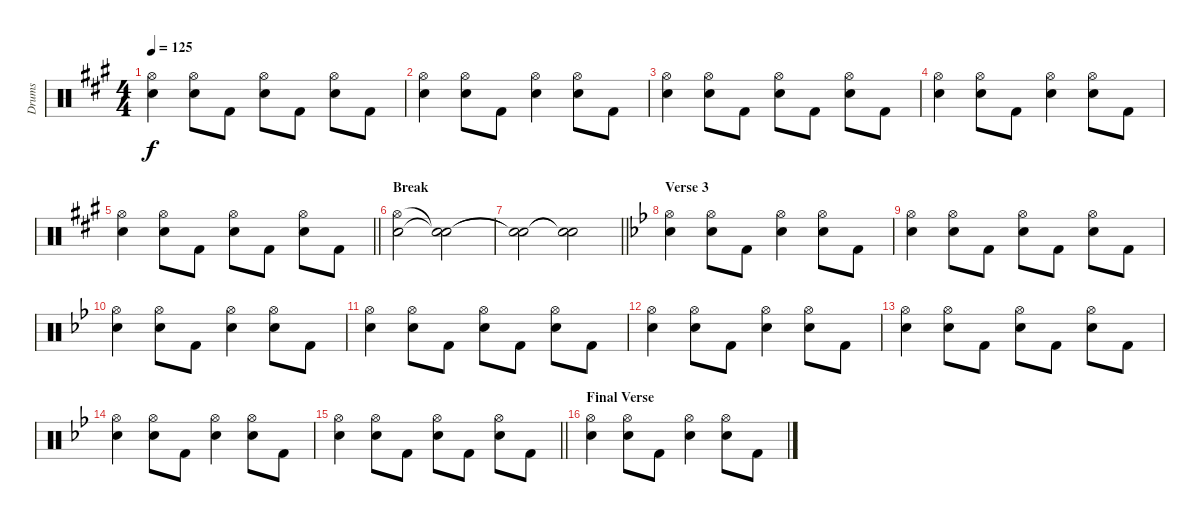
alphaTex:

\track ("Drums" "Drums") {instrument percussion}
\staff {score}
\articulation defaults
\ts (4 4)
\tempo 125
\clef neutral
\ks a
("Hi-Hat (open)" "Electric Snare (hit)").4{dy f} ("Hi-Hat (open)" "Electric Snare (hit)").8 "Kick (hit) 2".8 ("Hi-Hat (open)" "Electric Snare (hit)").8 "Kick (hit) 2".8 ("Hi-Hat (open)" "Electric Snare (hit)").8 "Kick (hit) 2".8 |
("Hi-Hat (open)" "Electric Snare (hit)").4 ("Hi-Hat (open)" "Electric Snare (hit)").8 "Kick (hit) 2".8 ("Hi-Hat (open)" "Electric Snare (hit)").4 ("Hi-Hat (open)" "Electric Snare (hit)").8 "Kick (hit) 2".8 |
("Hi-Hat (open)" "Electric Snare (hit)").4 ("Hi-Hat (open)" "Electric Snare (hit)").8 "Kick (hit) 2".8 ("Hi-Hat (open)" "Electric Snare (hit)").8 "Kick (hit) 2".8 ("Hi-Hat (open)" "Electric Snare (hit)").8 "Kick (hit) 2".8 |
("Hi-Hat (open)" "Electric Snare (hit)").4 ("Hi-Hat (open)" "Electric Snare (hit)").8 "Kick (hit) 2".8 ("Hi-Hat (open)" "Electric Snare (hit)").4 ("Hi-Hat (open)" "Electric Snare (hit)").8 "Kick (hit) 2".8 |
\barLineRight lightlight
("Hi-Hat (open)" "Electric Snare (hit)").4 ("Hi-Hat (open)" "Electric Snare (hit)").8 "Kick (hit) 2".8 ("Hi-Hat (open)" "Electric Snare (hit)").8 "Kick (hit) 2".8 ("Hi-Hat (open)" "Electric Snare (hit)").8 "Kick (hit) 2".8 |
\section ("" "Break")
("Electric Snare (hit)" "Hi-Hat (open)").2 ("Snare (hit)"{t} "Snare (hit)"{t}).2 |
\barLineRight lightlight
("Snare (hit)"{t} "Snare (hit)"{t}).2 ("Snare (hit)"{t} "Snare (hit)"{t}).2 |
\section ("" "Verse 3")
\ks bb
("Hi-Hat (open)" "Electric Snare (hit)").4 ("Hi-Hat (open)" "Electric Snare (hit)").8 "Kick (hit) 2".8 ("Hi-Hat (open)" "Electric Snare (hit)").4 ("Hi-Hat (open)" "Electric Snare (hit)").8 "Kick (hit) 2".8 |
("Hi-Hat (open)" "Electric Snare (hit)").4 ("Hi-Hat (open)" "Electric Snare (hit)").8 "Kick (hit) 2".8 ("Hi-Hat (open)" "Electric Snare (hit)").8 "Kick (hit) 2".8 ("Hi-Hat (open)" "Electric Snare (hit)").8 "Kick (hit) 2".8 |
("Hi-Hat (open)" "Electric Snare (hit)").4 ("Hi-Hat (open)" "Electric Snare (hit)").8 "Kick (hit) 2".8 ("Hi-Hat (open)" "Electric Snare (hit)").4 ("Hi-Hat (open)" "Electric Snare (hit)").8 "Kick (hit) 2".8 |
("Hi-Hat (open)" "Electric Snare (hit)").4 ("Hi-Hat (open)" "Electric Snare (hit)").8 "Kick (hit) 2".8 ("Hi-Hat (open)" "Electric Snare (hit)").8 "Kick (hit) 2".8 ("Hi-Hat (open)" "Electric Snare (hit)").8 "Kick (hit) 2".8 |
("Hi-Hat (open)" "Electric Snare (hit)").4 ("Hi-Hat (open)" "Electric Snare (hit)").8 "Kick (hit) 2".8 ("Hi-Hat (open)" "Electric Snare (hit)").4 ("Hi-Hat (open)" "Electric Snare (hit)").8 "Kick (hit) 2".8 |
("Hi-Hat (open)" "Electric Snare (hit)").4 ("Hi-Hat (open)" "Electric Snare (hit)").8 "Kick (hit) 2".8 ("Hi-Hat (open)" "Electric Snare (hit)").8 "Kick (hit) 2".8 ("Hi-Hat (open)" "Electric Snare (hit)").8 "Kick (hit) 2".8 |
("Hi-Hat (open)" "Electric Snare (hit)").4 ("Hi-Hat (open)" "Electric Snare (hit)").8 "Kick (hit) 2".8 ("Hi-Hat (open)" "Electric Snare (hit)").4 ("Hi-Hat (open)" "Electric Snare (hit)").8 "Kick (hit) 2".8 |
\barLineRight lightlight
("Hi-Hat (open)" "Electric Snare (hit)").4 ("Hi-Hat (open)" "Electric Snare (hit)").8 "Kick (hit) 2".8 ("Hi-Hat (open)" "Electric Snare (hit)").8 "Kick (hit) 2".8 ("Hi-Hat (open)" "Electric Snare (hit)").8 "Kick (hit) 2".8 |
\section ("" "Final Verse")
("Electric Snare (hit)" "Hi-Hat (open)").4 ("Hi-Hat (open)" "Electric Snare (hit)").8 "Kick (hit) 2".8 ("Hi-Hat (open)" "Electric Snare (hit)").4 ("Hi-Hat (open)" "Electric Snare (hit)").8 "Kick (hit) 2".8
